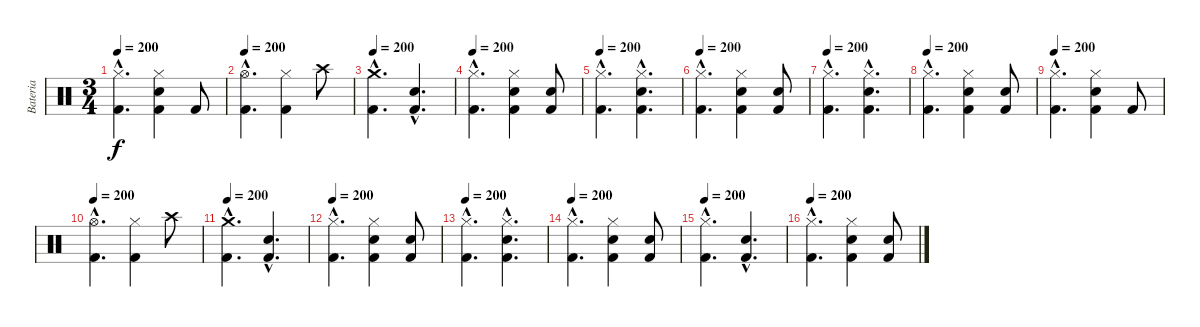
\track ("Bateria" "Bateria") {instrument percussion}
\staff {score}
\articulation defaults
\ts (3 4)
\tempo 200
\clef neutral
\ks c
("Hi-Hat (closed)"{hac} "Kick (hit) 2"{hac}).4{d dy f} ("Hi-Hat (closed)" "Electric Snare (hit)" "Kick (hit) 2").4 "Kick (hit) 2".8 |
\tempo 200
("Hi-Hat (open)"{hac} "Kick (hit) 2"{hac}).4{d} ("Hi-Hat (closed)" "Kick (hit) 2").4 "Crash high (hit)".8 |
\tempo 200
("Crash medium (hit)"{hac} "Kick (hit) 2"{hac}).4{d} ("Electric Snare (hit)"{hac} "Kick (hit) 2"{hac}).4{d} |
\tempo 200
("Hi-Hat (closed)"{hac} "Kick (hit) 2"{hac}).4{d} ("Hi-Hat (closed)" "Electric Snare (hit)" "Kick (hit) 2").4 ("Electric Snare (hit)" "Kick (hit) 2").8 |
\tempo 200
("Hi-Hat (closed)"{hac} "Kick (hit) 2"{hac}).4{d} ("Hi-Hat (closed)"{hac} "Electric Snare (hit)"{hac} "Kick (hit) 2"{hac}).4{d} |
\tempo 200
("Hi-Hat (closed)"{hac} "Kick (hit) 2"{hac}).4{d} ("Hi-Hat (closed)" "Electric Snare (hit)" "Kick (hit) 2").4 ("Electric Snare (hit)" "Kick (hit) 2").8 |
\tempo 200
("Hi-Hat (closed)"{hac} "Kick (hit) 2"{hac}).4{d} ("Hi-Hat (closed)"{hac} "Electric Snare (hit)"{hac} "Kick (hit) 2"{hac}).4{d} |
\tempo 200
("Hi-Hat (closed)"{hac} "Kick (hit) 2"{hac}).4{d} ("Hi-Hat (closed)" "Electric Snare (hit)" "Kick (hit) 2").4 ("Electric Snare (hit)" "Kick (hit) 2").8 |
\tempo 200
("Hi-Hat (closed)"{hac} "Kick (hit) 2"{hac}).4{d} ("Hi-Hat (closed)" "Electric Snare (hit)" "Kick (hit) 2").4 "Kick (hit) 2".8 |
\tempo 200
("Hi-Hat (open)"{hac} "Kick (hit) 2"{hac}).4{d} ("Hi-Hat (closed)" "Kick (hit) 2").4 "Crash high (hit)".8 |
\tempo 200
("Crash medium (hit)"{hac} "Kick (hit) 2"{hac}).4{d} ("Electric Snare (hit)"{hac} "Kick (hit) 2"{hac}).4{d} |
\tempo 200
("Hi-Hat (closed)"{hac} "Kick (hit) 2"{hac}).4{d} ("Hi-Hat (closed)" "Electric Snare (hit)" "Kick (hit) 2").4 ("Electric Snare (hit)" "Kick (hit) 2").8 |
\tempo 200
("Hi-Hat (closed)"{hac} "Kick (hit) 2"{hac}).4{d} ("Hi-Hat (closed)"{hac} "Electric Snare (hit)"{hac} "Kick (hit) 2"{hac}).4{d} |
\tempo 200
("Hi-Hat (closed)"{hac} "Kick (hit) 2"{hac}).4{d} ("Hi-Hat (closed)" "Electric Snare (hit)" "Kick (hit) 2").4 ("Electric Snare (hit)" "Kick (hit) 2").8 |
\tempo 200
("Hi-Hat (closed)"{hac} "Kick (hit) 2"{hac}).4{d} ("Electric Snare (hit)"{hac} "Kick (hit) 2"{hac}).4{d} |
\tempo 200
("Hi-Hat (closed)"{hac} "Kick (hit) 2"{hac}).4{d} ("Hi-Hat (closed)" "Electric Snare (hit)" "Kick (hit) 2").4 ("Electric Snare (hit)" "Kick (hit) 2").8
